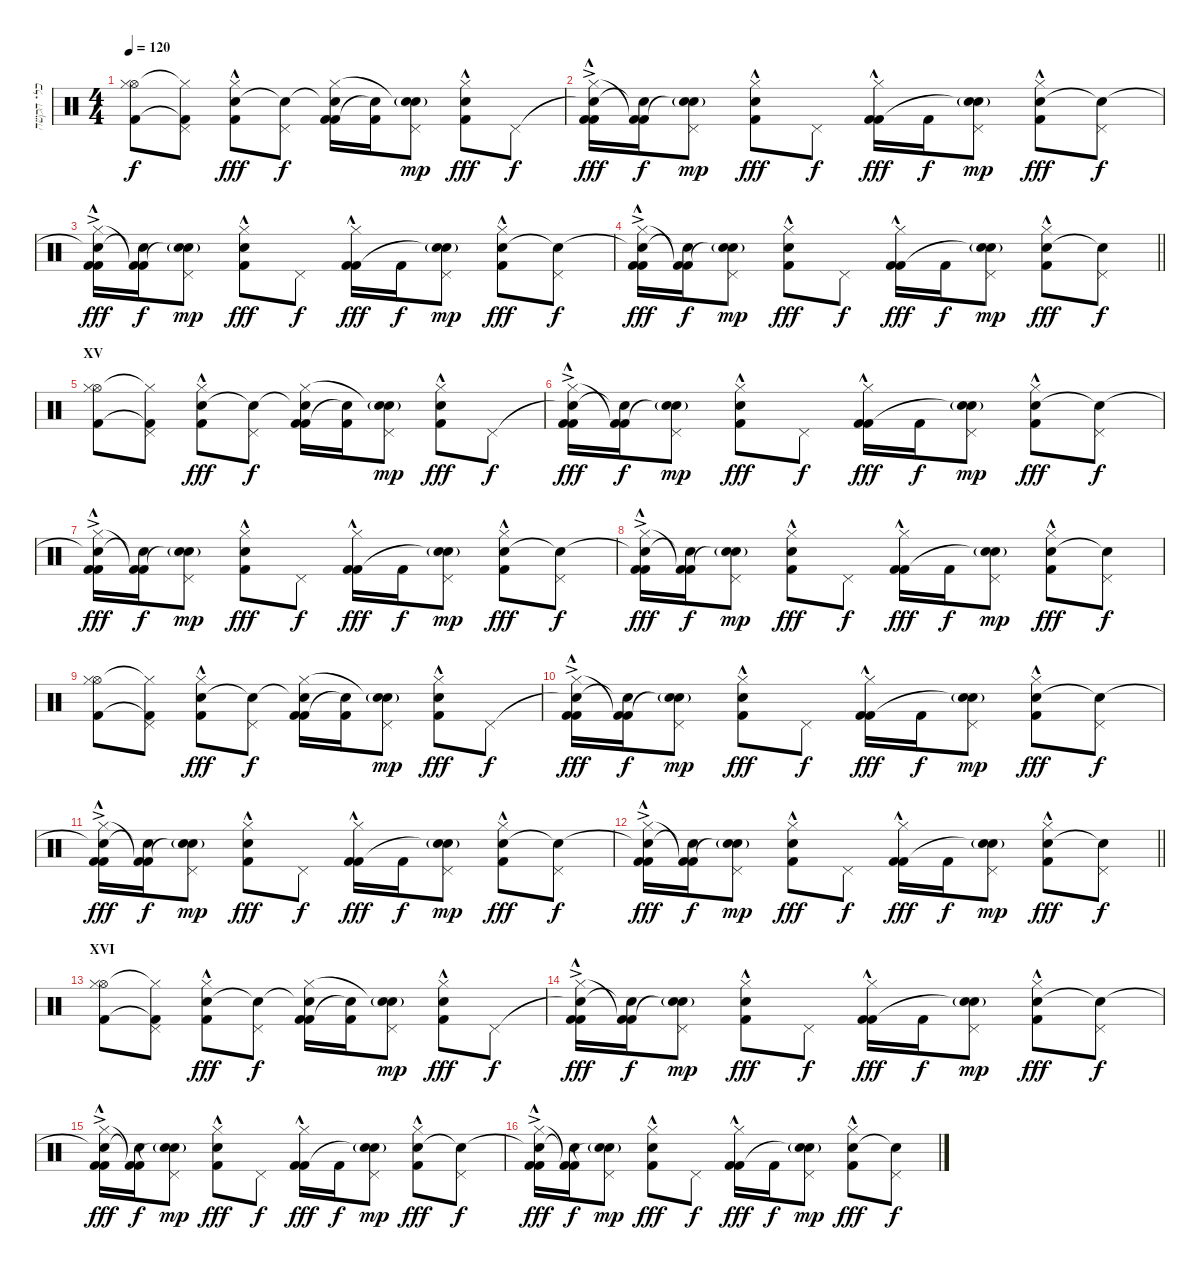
\track ("כלי הקשה" "כלי הקשה") {instrument percussion}
\staff {score}
\articulation defaults
\ts (4 4)
\tempo 120
\clef neutral
\ks c
("Hi-Hat (open)" "Hi-Hat (closed)" "Kick (hit) 2").8{dy f} ("Pedal Hi-Hat (hit)" "Hi-Hat (closed)"{t} "Kick (hit) 2"{t}).8 ("Hand Clap (hit)"{hac} "Hi-Hat (closed)" "Kick (hit) 2").8{dy fff} ("Snare (hit)"{t} "Pedal Hi-Hat (hit)").8{dy f} ("Snare (hit)"{t} "Kick (hit) 2" "Hi-Hat (closed)" "Kick (hit) 2").16 ("Kick (hit) 2" "Snare (hit)"{t}).16 ("Hand Clap (hit)"{g} "Pedal Hi-Hat (hit)" "Snare (hit)"{t}).8{dy mp} ("Hand Clap (hit)"{hac} "Hi-Hat (closed)" "Kick (hit) 2").8{dy fff} "Pedal Hi-Hat (hit)".8{dy f} |
("Snare (hit)"{t} "Kick (hit) 2"{ac} "Hi-Hat (closed)"{hac} "Kick (hit) 2"{hac}).16{dy fff} ("Snare (hit)"{t} "Kick (hit) 2" "Kick (hit) 2"{t}).16{dy f} ("Hand Clap (hit)"{g} "Pedal Hi-Hat (hit)" "Snare (hit)"{t}).8{dy mp} ("Hand Clap (hit)"{hac} "Hi-Hat (closed)"{hac} "Kick (hit) 2"{hac}).8{dy fff} "Pedal Hi-Hat (hit)".8{dy f} ("Kick (hit) 2" "Hi-Hat (closed)"{hac} "Kick (hit) 2"{hac}).16{dy fff} "Kick (hit) 2".16{dy f} ("Hand Clap (hit)"{g} "Pedal Hi-Hat (hit)" "Snare (hit)"{t}).8{dy mp} ("Hand Clap (hit)"{hac} "Hi-Hat (closed)"{hac} "Kick (hit) 2"{hac}).8{dy fff} ("Snare (hit)"{t} "Pedal Hi-Hat (hit)").8{dy f} |
("Snare (hit)"{t} "Kick (hit) 2"{ac} "Hi-Hat (closed)"{hac} "Kick (hit) 2"{hac}).16{dy fff} ("Snare (hit)"{t} "Kick (hit) 2" "Kick (hit) 2"{t}).16{dy f} ("Hand Clap (hit)"{g} "Pedal Hi-Hat (hit)" "Snare (hit)"{t}).8{dy mp} ("Hand Clap (hit)"{hac} "Hi-Hat (closed)"{hac} "Kick (hit) 2"{hac}).8{dy fff} "Pedal Hi-Hat (hit)".8{dy f} ("Kick (hit) 2" "Hi-Hat (closed)"{hac} "Kick (hit) 2"{hac}).16{dy fff} "Kick (hit) 2".16{dy f} ("Hand Clap (hit)"{g} "Pedal Hi-Hat (hit)" "Snare (hit)"{t}).8{dy mp} ("Hand Clap (hit)"{hac} "Hi-Hat (closed)"{hac} "Kick (hit) 2"{hac}).8{dy fff} ("Snare (hit)"{t} "Pedal Hi-Hat (hit)").8{dy f} |
\barLineRight lightlight
("Snare (hit)"{t} "Kick (hit) 2"{ac} "Hi-Hat (closed)"{hac} "Kick (hit) 2"{hac}).16{dy fff} ("Snare (hit)"{t} "Kick (hit) 2" "Kick (hit) 2"{t}).16{dy f} ("Hand Clap (hit)"{g} "Pedal Hi-Hat (hit)" "Snare (hit)"{t}).8{dy mp} ("Hand Clap (hit)"{hac} "Hi-Hat (closed)"{hac} "Kick (hit) 2"{hac}).8{dy fff} "Pedal Hi-Hat (hit)".8{dy f} ("Kick (hit) 2" "Hi-Hat (closed)"{hac} "Kick (hit) 2"{hac}).16{dy fff} "Kick (hit) 2".16{dy f} ("Hand Clap (hit)"{g} "Pedal Hi-Hat (hit)" "Snare (hit)"{t}).8{dy mp} ("Hand Clap (hit)"{hac} "Hi-Hat (closed)"{hac} "Kick (hit) 2"{hac}).8{dy fff} ("Snare (hit)"{t} "Pedal Hi-Hat (hit)").8{dy f} |
\section ("" "XV")
("Hi-Hat (open)" "Hi-Hat (closed)" "Kick (hit) 2").8 ("Pedal Hi-Hat (hit)" "Hi-Hat (closed)"{t} "Kick (hit) 2"{t}).8 ("Hand Clap (hit)"{hac} "Hi-Hat (closed)" "Kick (hit) 2").8{dy fff} ("Snare (hit)"{t} "Pedal Hi-Hat (hit)").8{dy f} ("Snare (hit)"{t} "Kick (hit) 2" "Hi-Hat (closed)" "Kick (hit) 2").16 ("Kick (hit) 2" "Snare (hit)"{t}).16 ("Hand Clap (hit)"{g} "Pedal Hi-Hat (hit)" "Snare (hit)"{t}).8{dy mp} ("Hand Clap (hit)"{hac} "Hi-Hat (closed)" "Kick (hit) 2").8{dy fff} "Pedal Hi-Hat (hit)".8{dy f} |
("Snare (hit)"{t} "Kick (hit) 2"{ac} "Hi-Hat (closed)"{hac} "Kick (hit) 2"{hac}).16{dy fff} ("Snare (hit)"{t} "Kick (hit) 2" "Kick (hit) 2"{t}).16{dy f} ("Hand Clap (hit)"{g} "Pedal Hi-Hat (hit)" "Snare (hit)"{t}).8{dy mp} ("Hand Clap (hit)"{hac} "Hi-Hat (closed)"{hac} "Kick (hit) 2"{hac}).8{dy fff} "Pedal Hi-Hat (hit)".8{dy f} ("Kick (hit) 2" "Hi-Hat (closed)"{hac} "Kick (hit) 2"{hac}).16{dy fff} "Kick (hit) 2".16{dy f} ("Hand Clap (hit)"{g} "Pedal Hi-Hat (hit)" "Snare (hit)"{t}).8{dy mp} ("Hand Clap (hit)"{hac} "Hi-Hat (closed)"{hac} "Kick (hit) 2"{hac}).8{dy fff} ("Snare (hit)"{t} "Pedal Hi-Hat (hit)").8{dy f} |
("Snare (hit)"{t} "Kick (hit) 2"{ac} "Hi-Hat (closed)"{hac} "Kick (hit) 2"{hac}).16{dy fff} ("Snare (hit)"{t} "Kick (hit) 2" "Kick (hit) 2"{t}).16{dy f} ("Hand Clap (hit)"{g} "Pedal Hi-Hat (hit)" "Snare (hit)"{t}).8{dy mp} ("Hand Clap (hit)"{hac} "Hi-Hat (closed)"{hac} "Kick (hit) 2"{hac}).8{dy fff} "Pedal Hi-Hat (hit)".8{dy f} ("Kick (hit) 2" "Hi-Hat (closed)"{hac} "Kick (hit) 2"{hac}).16{dy fff} "Kick (hit) 2".16{dy f} ("Hand Clap (hit)"{g} "Pedal Hi-Hat (hit)" "Snare (hit)"{t}).8{dy mp} ("Hand Clap (hit)"{hac} "Hi-Hat (closed)"{hac} "Kick (hit) 2"{hac}).8{dy fff} ("Snare (hit)"{t} "Pedal Hi-Hat (hit)").8{dy f} |
("Snare (hit)"{t} "Kick (hit) 2"{ac} "Hi-Hat (closed)"{hac} "Kick (hit) 2"{hac}).16{dy fff} ("Snare (hit)"{t} "Kick (hit) 2" "Kick (hit) 2"{t}).16{dy f} ("Hand Clap (hit)"{g} "Pedal Hi-Hat (hit)" "Snare (hit)"{t}).8{dy mp} ("Hand Clap (hit)"{hac} "Hi-Hat (closed)"{hac} "Kick (hit) 2"{hac}).8{dy fff} "Pedal Hi-Hat (hit)".8{dy f} ("Kick (hit) 2" "Hi-Hat (closed)"{hac} "Kick (hit) 2"{hac}).16{dy fff} "Kick (hit) 2".16{dy f} ("Hand Clap (hit)"{g} "Pedal Hi-Hat (hit)" "Snare (hit)"{t}).8{dy mp} ("Hand Clap (hit)"{hac} "Hi-Hat (closed)"{hac} "Kick (hit) 2"{hac}).8{dy fff} ("Snare (hit)"{t} "Pedal Hi-Hat (hit)").8{dy f} |
("Hi-Hat (open)" "Hi-Hat (closed)" "Kick (hit) 2").8 ("Pedal Hi-Hat (hit)" "Hi-Hat (closed)"{t} "Kick (hit) 2"{t}).8 ("Hand Clap (hit)"{hac} "Hi-Hat (closed)" "Kick (hit) 2").8{dy fff} ("Snare (hit)"{t} "Pedal Hi-Hat (hit)").8{dy f} ("Snare (hit)"{t} "Kick (hit) 2" "Hi-Hat (closed)" "Kick (hit) 2").16 ("Kick (hit) 2" "Snare (hit)"{t}).16 ("Hand Clap (hit)"{g} "Pedal Hi-Hat (hit)" "Snare (hit)"{t}).8{dy mp} ("Hand Clap (hit)"{hac} "Hi-Hat (closed)" "Kick (hit) 2").8{dy fff} "Pedal Hi-Hat (hit)".8{dy f} |
("Snare (hit)"{t} "Kick (hit) 2"{ac} "Hi-Hat (closed)"{hac} "Kick (hit) 2"{hac}).16{dy fff} ("Snare (hit)"{t} "Kick (hit) 2" "Kick (hit) 2"{t}).16{dy f} ("Hand Clap (hit)"{g} "Pedal Hi-Hat (hit)" "Snare (hit)"{t}).8{dy mp} ("Hand Clap (hit)"{hac} "Hi-Hat (closed)"{hac} "Kick (hit) 2"{hac}).8{dy fff} "Pedal Hi-Hat (hit)".8{dy f} ("Kick (hit) 2" "Hi-Hat (closed)"{hac} "Kick (hit) 2"{hac}).16{dy fff} "Kick (hit) 2".16{dy f} ("Hand Clap (hit)"{g} "Pedal Hi-Hat (hit)" "Snare (hit)"{t}).8{dy mp} ("Hand Clap (hit)"{hac} "Hi-Hat (closed)"{hac} "Kick (hit) 2"{hac}).8{dy fff} ("Snare (hit)"{t} "Pedal Hi-Hat (hit)").8{dy f} |
("Snare (hit)"{t} "Kick (hit) 2"{ac} "Hi-Hat (closed)"{hac} "Kick (hit) 2"{hac}).16{dy fff} ("Snare (hit)"{t} "Kick (hit) 2" "Kick (hit) 2"{t}).16{dy f} ("Hand Clap (hit)"{g} "Pedal Hi-Hat (hit)" "Snare (hit)"{t}).8{dy mp} ("Hand Clap (hit)"{hac} "Hi-Hat (closed)"{hac} "Kick (hit) 2"{hac}).8{dy fff} "Pedal Hi-Hat (hit)".8{dy f} ("Kick (hit) 2" "Hi-Hat (closed)"{hac} "Kick (hit) 2"{hac}).16{dy fff} "Kick (hit) 2".16{dy f} ("Hand Clap (hit)"{g} "Pedal Hi-Hat (hit)" "Snare (hit)"{t}).8{dy mp} ("Hand Clap (hit)"{hac} "Hi-Hat (closed)"{hac} "Kick (hit) 2"{hac}).8{dy fff} ("Snare (hit)"{t} "Pedal Hi-Hat (hit)").8{dy f} |
\barLineRight lightlight
("Snare (hit)"{t} "Kick (hit) 2"{ac} "Hi-Hat (closed)"{hac} "Kick (hit) 2"{hac}).16{dy fff} ("Snare (hit)"{t} "Kick (hit) 2" "Kick (hit) 2"{t}).16{dy f} ("Hand Clap (hit)"{g} "Pedal Hi-Hat (hit)" "Snare (hit)"{t}).8{dy mp} ("Hand Clap (hit)"{hac} "Hi-Hat (closed)"{hac} "Kick (hit) 2"{hac}).8{dy fff} "Pedal Hi-Hat (hit)".8{dy f} ("Kick (hit) 2" "Hi-Hat (closed)"{hac} "Kick (hit) 2"{hac}).16{dy fff} "Kick (hit) 2".16{dy f} ("Hand Clap (hit)"{g} "Pedal Hi-Hat (hit)" "Snare (hit)"{t}).8{dy mp} ("Hand Clap (hit)"{hac} "Hi-Hat (closed)"{hac} "Kick (hit) 2"{hac}).8{dy fff} ("Snare (hit)"{t} "Pedal Hi-Hat (hit)").8{dy f} |
\section ("" "XVI")
("Hi-Hat (open)" "Hi-Hat (closed)" "Kick (hit) 2").8 ("Pedal Hi-Hat (hit)" "Hi-Hat (closed)"{t} "Kick (hit) 2"{t}).8 ("Hand Clap (hit)"{hac} "Hi-Hat (closed)" "Kick (hit) 2").8{dy fff} ("Snare (hit)"{t} "Pedal Hi-Hat (hit)").8{dy f} ("Snare (hit)"{t} "Kick (hit) 2" "Hi-Hat (closed)" "Kick (hit) 2").16 ("Kick (hit) 2" "Snare (hit)"{t}).16 ("Hand Clap (hit)"{g} "Pedal Hi-Hat (hit)" "Snare (hit)"{t}).8{dy mp} ("Hand Clap (hit)"{hac} "Hi-Hat (closed)" "Kick (hit) 2").8{dy fff} "Pedal Hi-Hat (hit)".8{dy f} |
("Snare (hit)"{t} "Kick (hit) 2"{ac} "Hi-Hat (closed)"{hac} "Kick (hit) 2"{hac}).16{dy fff} ("Snare (hit)"{t} "Kick (hit) 2" "Kick (hit) 2"{t}).16{dy f} ("Hand Clap (hit)"{g} "Pedal Hi-Hat (hit)" "Snare (hit)"{t}).8{dy mp} ("Hand Clap (hit)"{hac} "Hi-Hat (closed)"{hac} "Kick (hit) 2"{hac}).8{dy fff} "Pedal Hi-Hat (hit)".8{dy f} ("Kick (hit) 2" "Hi-Hat (closed)"{hac} "Kick (hit) 2"{hac}).16{dy fff} "Kick (hit) 2".16{dy f} ("Hand Clap (hit)"{g} "Pedal Hi-Hat (hit)" "Snare (hit)"{t}).8{dy mp} ("Hand Clap (hit)"{hac} "Hi-Hat (closed)"{hac} "Kick (hit) 2"{hac}).8{dy fff} ("Snare (hit)"{t} "Pedal Hi-Hat (hit)").8{dy f} |
("Snare (hit)"{t} "Kick (hit) 2"{ac} "Hi-Hat (closed)"{hac} "Kick (hit) 2"{hac}).16{dy fff} ("Snare (hit)"{t} "Kick (hit) 2" "Kick (hit) 2"{t}).16{dy f} ("Hand Clap (hit)"{g} "Pedal Hi-Hat (hit)" "Snare (hit)"{t}).8{dy mp} ("Hand Clap (hit)"{hac} "Hi-Hat (closed)"{hac} "Kick (hit) 2"{hac}).8{dy fff} "Pedal Hi-Hat (hit)".8{dy f} ("Kick (hit) 2" "Hi-Hat (closed)"{hac} "Kick (hit) 2"{hac}).16{dy fff} "Kick (hit) 2".16{dy f} ("Hand Clap (hit)"{g} "Pedal Hi-Hat (hit)" "Snare (hit)"{t}).8{dy mp} ("Hand Clap (hit)"{hac} "Hi-Hat (closed)"{hac} "Kick (hit) 2"{hac}).8{dy fff} ("Snare (hit)"{t} "Pedal Hi-Hat (hit)").8{dy f} |
("Snare (hit)"{t} "Kick (hit) 2"{ac} "Hi-Hat (closed)"{hac} "Kick (hit) 2"{hac}).16{dy fff} ("Snare (hit)"{t} "Kick (hit) 2" "Kick (hit) 2"{t}).16{dy f} ("Hand Clap (hit)"{g} "Pedal Hi-Hat (hit)" "Snare (hit)"{t}).8{dy mp} ("Hand Clap (hit)"{hac} "Hi-Hat (closed)"{hac} "Kick (hit) 2"{hac}).8{dy fff} "Pedal Hi-Hat (hit)".8{dy f} ("Kick (hit) 2" "Hi-Hat (closed)"{hac} "Kick (hit) 2"{hac}).16{dy fff} "Kick (hit) 2".16{dy f} ("Hand Clap (hit)"{g} "Pedal Hi-Hat (hit)" "Snare (hit)"{t}).8{dy mp} ("Hand Clap (hit)"{hac} "Hi-Hat (closed)"{hac} "Kick (hit) 2"{hac}).8{dy fff} ("Snare (hit)"{t} "Pedal Hi-Hat (hit)").8{dy f}
